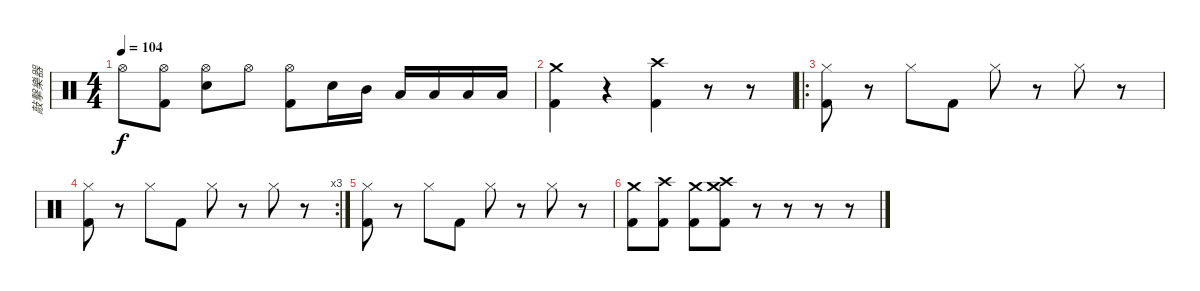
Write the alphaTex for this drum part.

\track ("敲擊樂器" "敲擊樂器") {instrument percussion}
\staff {score}
\articulation defaults
\ts (4 4)
\tempo 104
\clef neutral
\ks c "Hi-Hat (open)".8{dy f}
("Hi-Hat (open)" "Kick (hit) 2").8 ("Hi-Hat (open)" "Electric Snare (hit)").8 "Hi-Hat (open)".8 ("Hi-Hat (open)" "Kick (hit) 2").8 "Electric Snare (hit)".16 "Mid Tom (hit)".16 "Low Tom (hit)".16 "Low Tom (hit)".16 "Low Floor Tom (hit)".16 "Low Floor Tom (hit)".16 |
("Crash medium (hit)" "Kick (hit) 2").4 r.4 ("Crash high (hit)" "Kick (hit) 2").4 r.8 r.8 |
\ro
("Hi-Hat (closed)" "Kick (hit) 2").8 r.8 "Hi-Hat (closed)".8 "Kick (hit) 2".8 "Hi-Hat (closed)".8 r.8 "Hi-Hat (closed)".8 r.8 |
\rc 3
("Hi-Hat (closed)" "Kick (hit) 2").8 r.8 "Hi-Hat (closed)".8 "Kick (hit) 2".8 "Hi-Hat (closed)".8 r.8 "Hi-Hat (closed)".8 r.8 |
("Hi-Hat (closed)" "Kick (hit) 2").8 r.8 "Hi-Hat (closed)".8 "Kick (hit) 2".8 "Hi-Hat (closed)".8 r.8 "Hi-Hat (closed)".8 r.8 |
("Crash medium (hit)" "Kick (hit) 2").8 ("Crash high (hit)" "Kick (hit) 2").8 ("Crash medium (hit)" "Kick (hit) 2").8 ("Crash high (hit)" "Crash medium (hit)" "Kick (hit) 2").8 r.8 r.8 r.8 r.8
